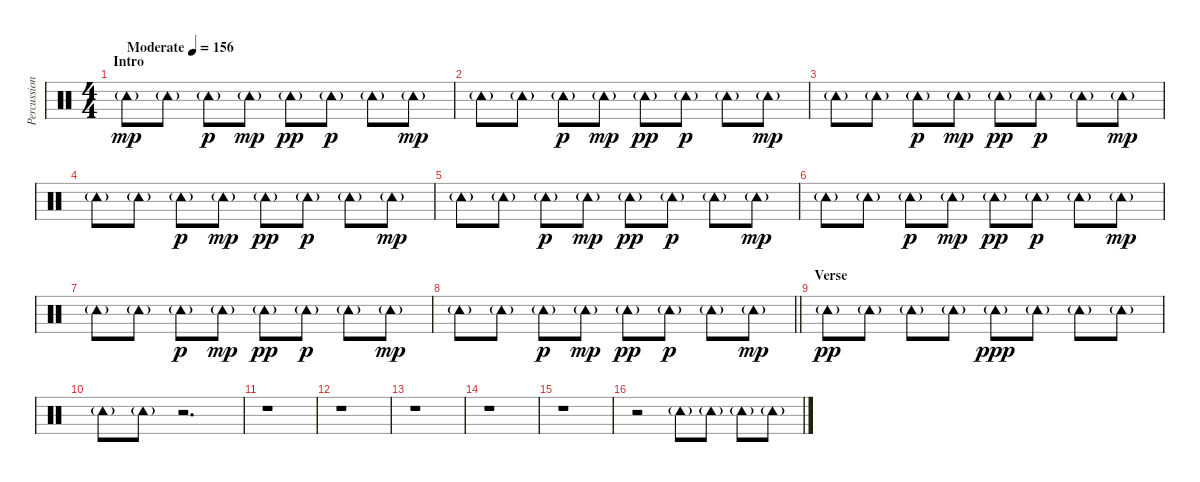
\track ("Percussion 2" "Percussion") {instrument percussion}
\staff {score}
\articulation defaults
\ts (4 4)
\section ("" "Intro")
\tempo (156 "Moderate")
\clef neutral
\ks c "Tambourine (hit)"{g}.8{dy mp} "Tambourine (hit)"{g}.8 "Tambourine (hit)"{g}.8{dy p} "Tambourine (hit)"{g}.8{dy mp} "Tambourine (hit)"{g}.8{dy pp} "Tambourine (hit)"{g}.8{dy p} "Tambourine (hit)"{g}.8 "Tambourine (hit)"{g}.8{dy mp}
|
"Tambourine (hit)"{g}.8 "Tambourine (hit)"{g}.8 "Tambourine (hit)"{g}.8{dy p} "Tambourine (hit)"{g}.8{dy mp} "Tambourine (hit)"{g}.8{dy pp} "Tambourine (hit)"{g}.8{dy p} "Tambourine (hit)"{g}.8 "Tambourine (hit)"{g}.8{dy mp} |
"Tambourine (hit)"{g}.8 "Tambourine (hit)"{g}.8 "Tambourine (hit)"{g}.8{dy p} "Tambourine (hit)"{g}.8{dy mp} "Tambourine (hit)"{g}.8{dy pp} "Tambourine (hit)"{g}.8{dy p} "Tambourine (hit)"{g}.8 "Tambourine (hit)"{g}.8{dy mp} |
"Tambourine (hit)"{g}.8 "Tambourine (hit)"{g}.8 "Tambourine (hit)"{g}.8{dy p} "Tambourine (hit)"{g}.8{dy mp} "Tambourine (hit)"{g}.8{dy pp} "Tambourine (hit)"{g}.8{dy p} "Tambourine (hit)"{g}.8 "Tambourine (hit)"{g}.8{dy mp} |
"Tambourine (hit)"{g}.8 "Tambourine (hit)"{g}.8 "Tambourine (hit)"{g}.8{dy p} "Tambourine (hit)"{g}.8{dy mp} "Tambourine (hit)"{g}.8{dy pp} "Tambourine (hit)"{g}.8{dy p} "Tambourine (hit)"{g}.8 "Tambourine (hit)"{g}.8{dy mp} |
"Tambourine (hit)"{g}.8 "Tambourine (hit)"{g}.8 "Tambourine (hit)"{g}.8{dy p} "Tambourine (hit)"{g}.8{dy mp} "Tambourine (hit)"{g}.8{dy pp} "Tambourine (hit)"{g}.8{dy p} "Tambourine (hit)"{g}.8 "Tambourine (hit)"{g}.8{dy mp} |
"Tambourine (hit)"{g}.8 "Tambourine (hit)"{g}.8 "Tambourine (hit)"{g}.8{dy p} "Tambourine (hit)"{g}.8{dy mp} "Tambourine (hit)"{g}.8{dy pp} "Tambourine (hit)"{g}.8{dy p} "Tambourine (hit)"{g}.8 "Tambourine (hit)"{g}.8{dy mp} |
\barLineRight lightlight "Tambourine (hit)"{g}.8 "Tambourine (hit)"{g}.8 "Tambourine (hit)"{g}.8{dy p} "Tambourine (hit)"{g}.8{dy mp} "Tambourine (hit)"{g}.8{dy pp} "Tambourine (hit)"{g}.8{dy p} "Tambourine (hit)"{g}.8 "Tambourine (hit)"{g}.8{dy mp}
|
\section ("" "Verse")
"Tambourine (hit)"{g}.8{dy pp} "Tambourine (hit)"{g}.8 "Tambourine (hit)"{g}.8 "Tambourine (hit)"{g}.8 "Tambourine (hit)"{g}.8{dy ppp} "Tambourine (hit)"{g}.8 "Tambourine (hit)"{g}.8 "Tambourine (hit)"{g}.8 |
"Tambourine (hit)"{g}.8 "Tambourine (hit)"{g}.8 r.2{d} |
r.1 |
r.1 |
r.1 |
r.1 |
r.1 |
r.2 "Tambourine (hit)"{g}.8 "Tambourine (hit)"{g}.8 "Tambourine (hit)"{g}.8 "Tambourine (hit)"{g}.8
